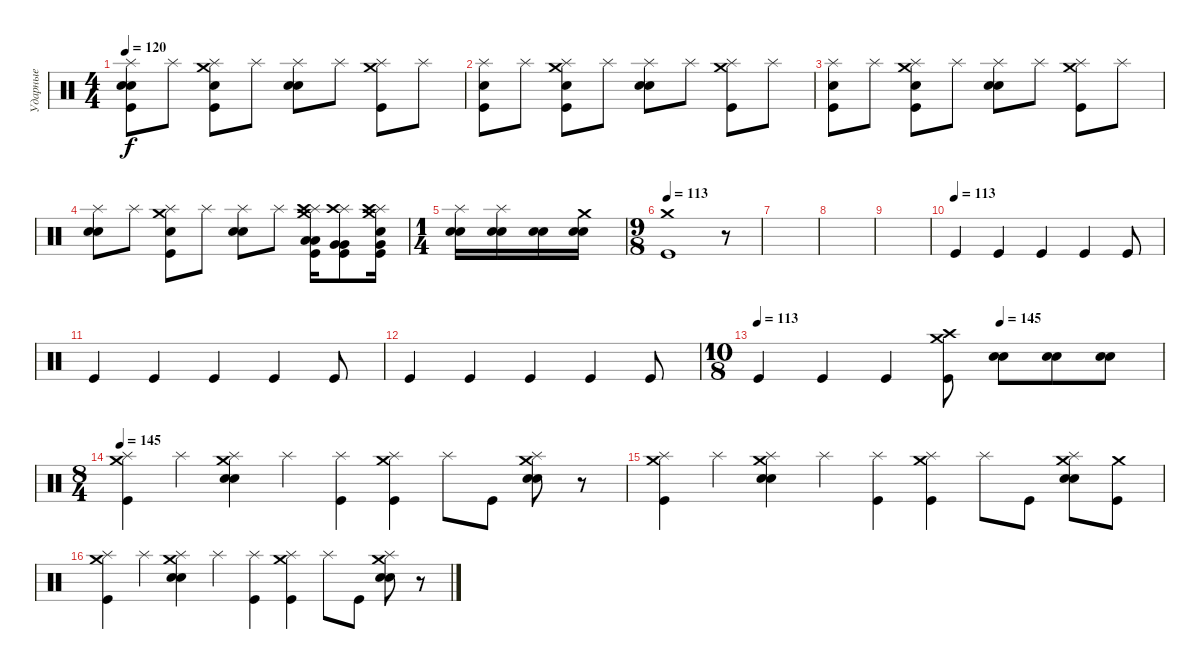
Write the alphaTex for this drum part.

\track ("Ударные" "Ударные") {instrument percussion}
\staff {score}
\articulation defaults
\ts (4 4)
\tempo 120
\clef neutral
\ks c
("Splash (hit)" "Electric Snare (hit)" "Electric Snare (hit)" "Kick (hit)").8{dy f} "Splash (hit)".8 ("Crash medium (hit)" "Splash (hit)" "Electric Snare (hit)" "Kick (hit)").8 "Splash (hit)".8 ("Splash (hit)" "Electric Snare (hit)" "Electric Snare (hit)").8 "Splash (hit)".8 ("Crash medium (hit)" "Splash (hit)" "Kick (hit)").8 "Splash (hit)".8 |
("Splash (hit)" "Electric Snare (hit)" "Kick (hit)").8 "Splash (hit)".8 ("Crash medium (hit)" "Splash (hit)" "Electric Snare (hit)" "Kick (hit)").8 "Splash (hit)".8 ("Splash (hit)" "Electric Snare (hit)" "Electric Snare (hit)").8 "Splash (hit)".8 ("Crash medium (hit)" "Splash (hit)" "Kick (hit)").8 "Splash (hit)".8 |
("Splash (hit)" "Electric Snare (hit)" "Kick (hit)").8 "Splash (hit)".8 ("Crash medium (hit)" "Splash (hit)" "Electric Snare (hit)" "Kick (hit)").8 "Splash (hit)".8 ("Splash (hit)" "Electric Snare (hit)" "Electric Snare (hit)").8 "Splash (hit)".8 ("Crash medium (hit)" "Splash (hit)" "Kick (hit)").8 "Splash (hit)".8 |
("Splash (hit)" "Electric Snare (hit)" "Electric Snare (hit)").8 "Splash (hit)".8 ("Crash medium (hit)" "Splash (hit)" "Electric Snare (hit)" "Kick (hit)").8 "Splash (hit)".8 ("Splash (hit)" "Electric Snare (hit)" "Electric Snare (hit)").8 "Splash (hit)".8 ("Crash medium (hit)" "Splash (hit)" "Low Floor Tom (hit)" "Low Floor Tom (hit)" "Crash high (hit)" "Kick (hit)").16 ("Splash (hit)" "Very Low Tom (hit)" "Very Low Tom (hit)" "Crash high (hit)" "Kick (hit)").8 ("Splash (hit)" "Crash medium (hit)" "Electric Snare (hit)" "Very Low Tom (hit)" "Crash high (hit)" "Kick (hit)").16 |
\ts (1 4)
("Splash (hit)" "Electric Snare (hit)" "Electric Snare (hit)").16 ("Splash (hit)" "Electric Snare (hit)" "Electric Snare (hit)").16 ("Electric Snare (hit)" "Electric Snare (hit)").16 ("Crash medium (hit)" "Electric Snare (hit)" "Electric Snare (hit)").16 |
\ts (9 8)
\tempo 113
("Crash medium (hit)" "Kick (hit)").1 r.8 |
|
|
|
\tempo (113)
"Kick (hit)".4 "Kick (hit)".4 "Kick (hit)".4 "Kick (hit)".4 "Kick (hit)".8 |
"Kick (hit)".4 "Kick (hit)".4 "Kick (hit)".4 "Kick (hit)".4 "Kick (hit)".8 |
"Kick (hit)".4 "Kick (hit)".4 "Kick (hit)".4 "Kick (hit)".4 "Kick (hit)".8 |
\ts (10 8)
\tempo 113
\tempo (130 0.6)
\tempo (145 0.6)
"Kick (hit)".4 "Kick (hit)".4 "Kick (hit)".4 ("Crash medium (hit)" "Crash high (hit)" "Kick (hit)").8 ("Electric Snare (hit)" "Electric Snare (hit)").8 ("Electric Snare (hit)" "Electric Snare (hit)").8 ("Electric Snare (hit)" "Electric Snare (hit)").8 |
\ts (8 4)
\tempo 145
("Splash (hit)" "Crash medium (hit)" "Kick (hit)").4 "Splash (hit)".4 ("Splash (hit)" "Crash medium (hit)" "Electric Snare (hit)" "Electric Snare (hit)").4 "Splash (hit)".4 ("Splash (hit)" "Kick (hit)").4 ("Splash (hit)" "Crash medium (hit)" "Kick (hit)").4 "Splash (hit)".8 "Kick (hit)".8 ("Splash (hit)" "Crash medium (hit)" "Electric Snare (hit)" "Electric Snare (hit)").8 r.8 |
("Splash (hit)" "Crash medium (hit)" "Kick (hit)").4 "Splash (hit)".4 ("Splash (hit)" "Crash medium (hit)" "Electric Snare (hit)" "Electric Snare (hit)").4 "Splash (hit)".4 ("Splash (hit)" "Kick (hit)").4 ("Splash (hit)" "Crash medium (hit)" "Kick (hit)").4 "Splash (hit)".8 "Kick (hit)".8 ("Splash (hit)" "Crash medium (hit)" "Electric Snare (hit)" "Electric Snare (hit)").8 ("Crash medium (hit)" "Kick (hit)").8 |
("Splash (hit)" "Crash medium (hit)" "Kick (hit)").4 "Splash (hit)".4 ("Splash (hit)" "Crash medium (hit)" "Electric Snare (hit)" "Electric Snare (hit)").4 "Splash (hit)".4 ("Splash (hit)" "Kick (hit)").4 ("Splash (hit)" "Crash medium (hit)" "Kick (hit)").4 "Splash (hit)".8 "Kick (hit)".8 ("Splash (hit)" "Crash medium (hit)" "Electric Snare (hit)" "Electric Snare (hit)").8 r.8
